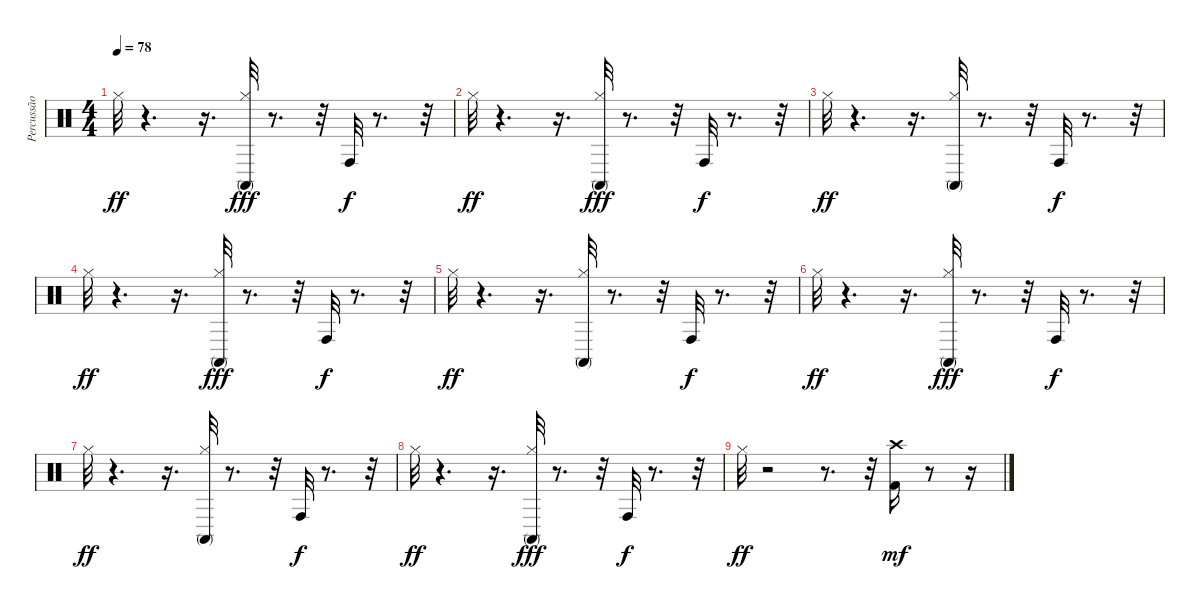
\track ("Percussão" "Percussão") {instrument percussion}
\staff {score}
\articulation defaults
\ts (4 4)
\tempo 78
\clef neutral
\ks c "Hi-Hat (closed)".32{dy ff}
r.4{d} r.16{d} ("Hi-Hat (closed)" "Conga high (mute)").32{dy fff} r.8{d} r.32 "Conga high (hit)".32{dy f} r.8{d} r.32 |
"Hi-Hat (closed)".32{dy ff} r.4{d} r.16{d} ("Hi-Hat (closed)" "Conga high (mute)").32{dy fff} r.8{d} r.32 "Conga high (hit)".32{dy f} r.8{d} r.32 |
"Hi-Hat (closed)".32{dy ff} r.4{d} r.16{d} ("Conga high (mute)" "Hi-Hat (closed)").32 r.8{d} r.32 "Conga high (hit)".32{dy f} r.8{d} r.32 |
"Hi-Hat (closed)".32{dy ff} r.4{d} r.16{d} ("Hi-Hat (closed)" "Conga high (mute)").32{dy fff} r.8{d} r.32 "Conga high (hit)".32{dy f} r.8{d} r.32 |
"Hi-Hat (closed)".32{dy ff} r.4{d} r.16{d} ("Conga high (mute)" "Hi-Hat (closed)").32 r.8{d} r.32 "Conga high (hit)".32{dy f} r.8{d} r.32 |
"Hi-Hat (closed)".32{dy ff} r.4{d} r.16{d} ("Hi-Hat (closed)" "Conga high (mute)").32{dy fff} r.8{d} r.32 "Conga high (hit)".32{dy f} r.8{d} r.32 |
"Hi-Hat (closed)".32{dy ff} r.4{d} r.16{d} ("Conga high (mute)" "Hi-Hat (closed)").32 r.8{d} r.32 "Conga high (hit)".32{dy f} r.8{d} r.32 |
"Hi-Hat (closed)".32{dy ff} r.4{d} r.16{d} ("Hi-Hat (closed)" "Conga high (mute)").32{dy fff} r.8{d} r.32 "Conga high (hit)".32{dy f} r.8{d} r.32 |
"Hi-Hat (closed)".32{dy ff} r.2 r.8{d} r.32 ("Crash high (hit)" "Kick (hit) 2").16{dy mf} r.8 r.16
